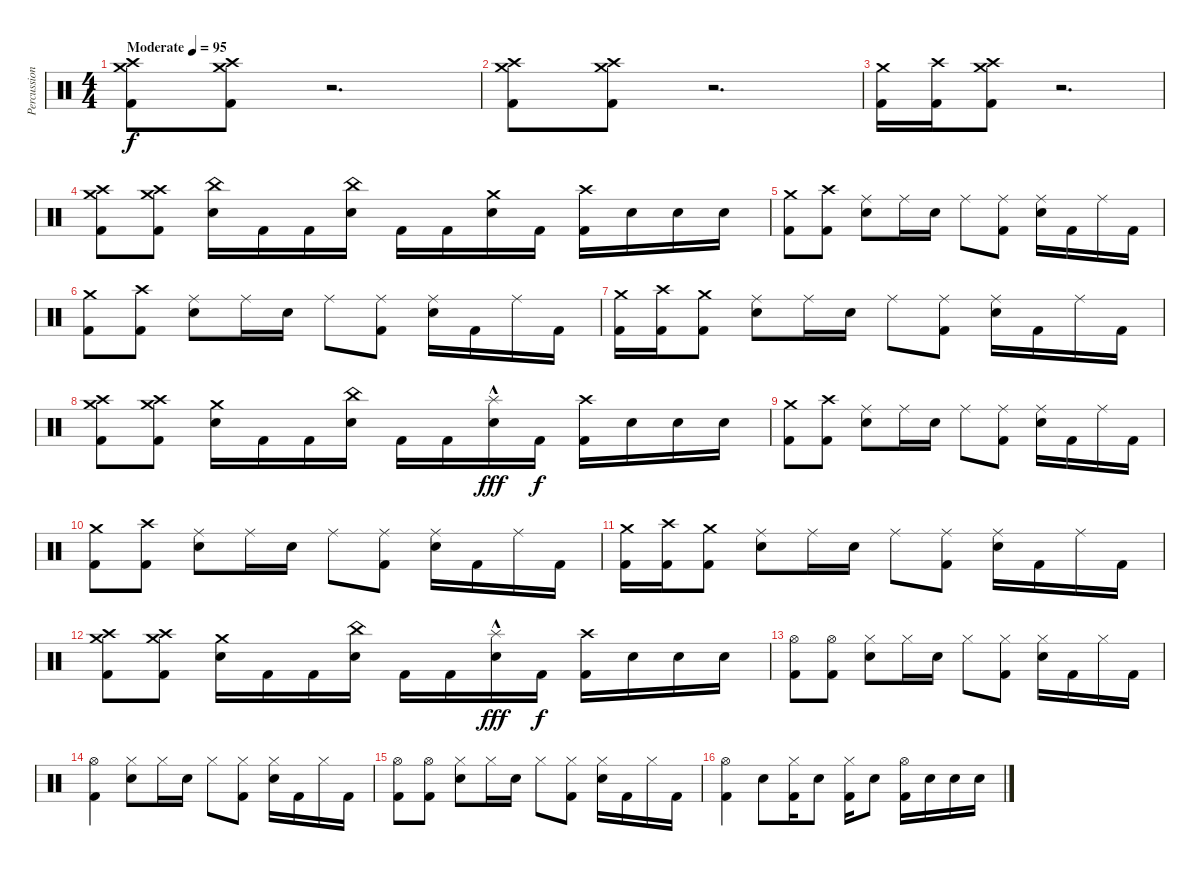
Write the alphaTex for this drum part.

\track ("Percussions" "Percussion") {instrument percussion}
\staff {score}
\articulation defaults
\ts (4 4)
\tempo (95 "Moderate")
\clef neutral
\ks c
("Crash medium (hit)" "Crash high (hit)" "Kick (hit) 2").8{dy f} ("Crash high (hit)" "Crash medium (hit)" "Kick (hit) 2").8 r.2{d} |
("Crash medium (hit)" "Crash high (hit)" "Kick (hit) 2").8 ("Crash high (hit)" "Crash medium (hit)" "Kick (hit) 2").8 r.2{d} |
("Crash medium (hit)" "Kick (hit) 2").16 ("Crash high (hit)" "Kick (hit) 2").16 ("Crash medium (hit)" "Crash high (hit)" "Kick (hit) 2").8 r.2{d} |
("Crash medium (hit)" "Crash high (hit)" "Kick (hit) 2").8 ("Crash high (hit)" "Crash medium (hit)" "Kick (hit) 2").8 ("China (hit)" "Electric Snare (hit)").16 "Kick (hit) 2".16 "Kick (hit) 2".16 ("China (hit)" "Electric Snare (hit)").16 "Kick (hit) 2".16 "Kick (hit) 2".16 ("Crash medium (hit)" "Electric Snare (hit)").16 "Kick (hit) 2".16 ("Crash high (hit)" "Kick (hit) 2").16 "Electric Snare (hit)".16 "Electric Snare (hit)".16 "Electric Snare (hit)".16 |
("Crash medium (hit)" "Kick (hit) 2").8 ("Crash high (hit)" "Kick (hit) 2").8 ("Ride (middle)" "Electric Snare (hit)").8 "Ride (middle)".16 "Electric Snare (hit)".16 "Ride (middle)".8 ("Ride (middle)" "Kick (hit) 2").8 ("Ride (middle)" "Electric Snare (hit)").16 "Kick (hit) 2".16 "Ride (middle)".16 "Kick (hit) 2".16 |
("Crash medium (hit)" "Kick (hit) 2").8 ("Crash high (hit)" "Kick (hit) 2").8 ("Ride (middle)" "Electric Snare (hit)").8 "Ride (middle)".16 "Electric Snare (hit)".16 "Ride (middle)".8 ("Ride (middle)" "Kick (hit) 2").8 ("Ride (middle)" "Electric Snare (hit)").16 "Kick (hit) 2".16 "Ride (middle)".16 "Kick (hit) 2".16 |
("Crash medium (hit)" "Kick (hit) 2").16 ("Crash high (hit)" "Kick (hit) 2").16 ("Crash medium (hit)" "Kick (hit) 2").8 ("Ride (middle)" "Electric Snare (hit)").8 "Ride (middle)".16 "Electric Snare (hit)".16 "Ride (middle)".8 ("Ride (middle)" "Kick (hit) 2").8 ("Ride (middle)" "Electric Snare (hit)").16 "Kick (hit) 2".16 "Ride (middle)".16 "Kick (hit) 2".16 |
("Crash medium (hit)" "Crash high (hit)" "Kick (hit) 2").8 ("Crash high (hit)" "Crash medium (hit)" "Kick (hit) 2").8 ("Crash medium (hit)" "Electric Snare (hit)").16 "Kick (hit) 2".16 "Kick (hit) 2".16 ("China (hit)" "Electric Snare (hit)").16 "Kick (hit) 2".16 "Kick (hit) 2".16 ("Splash (hit)"{hac} "Electric Snare (hit)").16{dy fff} "Kick (hit) 2".16{dy f} ("Crash high (hit)" "Kick (hit) 2").16 "Electric Snare (hit)".16 "Electric Snare (hit)".16 "Electric Snare (hit)".16 |
("Crash medium (hit)" "Kick (hit) 2").8 ("Crash high (hit)" "Kick (hit) 2").8 ("Ride (middle)" "Electric Snare (hit)").8 "Ride (middle)".16 "Electric Snare (hit)".16 "Ride (middle)".8 ("Ride (middle)" "Kick (hit) 2").8 ("Ride (middle)" "Electric Snare (hit)").16 "Kick (hit) 2".16 "Ride (middle)".16 "Kick (hit) 2".16 |
("Crash medium (hit)" "Kick (hit) 2").8 ("Crash high (hit)" "Kick (hit) 2").8 ("Ride (middle)" "Electric Snare (hit)").8 "Ride (middle)".16 "Electric Snare (hit)".16 "Ride (middle)".8 ("Ride (middle)" "Kick (hit) 2").8 ("Ride (middle)" "Electric Snare (hit)").16 "Kick (hit) 2".16 "Ride (middle)".16 "Kick (hit) 2".16 |
("Crash medium (hit)" "Kick (hit) 2").16 ("Crash high (hit)" "Kick (hit) 2").16 ("Crash medium (hit)" "Kick (hit) 2").8 ("Ride (middle)" "Electric Snare (hit)").8 "Ride (middle)".16 "Electric Snare (hit)".16 "Ride (middle)".8 ("Ride (middle)" "Kick (hit) 2").8 ("Ride (middle)" "Electric Snare (hit)").16 "Kick (hit) 2".16 "Ride (middle)".16 "Kick (hit) 2".16 |
("Crash medium (hit)" "Crash high (hit)" "Kick (hit) 2").8 ("Crash high (hit)" "Crash medium (hit)" "Kick (hit) 2").8 ("Crash medium (hit)" "Electric Snare (hit)").16 "Kick (hit) 2".16 "Kick (hit) 2".16 ("China (hit)" "Electric Snare (hit)").16 "Kick (hit) 2".16 "Kick (hit) 2".16 ("Splash (hit)"{hac} "Electric Snare (hit)").16{dy fff} "Kick (hit) 2".16{dy f} ("Crash high (hit)" "Kick (hit) 2").16 "Electric Snare (hit)".16 "Electric Snare (hit)".16 "Electric Snare (hit)".16 |
("Hi-Hat (open)" "Kick (hit) 2").8 ("Hi-Hat (open)" "Kick (hit) 2").8 ("Hi-Hat (closed)" "Electric Snare (hit)").8 "Hi-Hat (closed)".16 "Electric Snare (hit)".16 "Hi-Hat (closed)".8 ("Hi-Hat (closed)" "Kick (hit) 2").8 ("Hi-Hat (closed)" "Electric Snare (hit)").16 "Kick (hit) 2".16 "Hi-Hat (closed)".16 "Kick (hit) 2".16 |
("Hi-Hat (open)" "Kick (hit) 2").4 ("Hi-Hat (closed)" "Electric Snare (hit)").8 "Hi-Hat (closed)".16 "Electric Snare (hit)".16 "Hi-Hat (closed)".8 ("Hi-Hat (closed)" "Kick (hit) 2").8 ("Hi-Hat (closed)" "Electric Snare (hit)").16 "Kick (hit) 2".16 "Hi-Hat (closed)".16 "Kick (hit) 2".16 |
("Hi-Hat (open)" "Kick (hit) 2").8 ("Hi-Hat (open)" "Kick (hit) 2").8 ("Hi-Hat (closed)" "Electric Snare (hit)").8 "Hi-Hat (closed)".16 "Electric Snare (hit)".16 "Hi-Hat (closed)".8 ("Hi-Hat (closed)" "Kick (hit) 2").8 ("Hi-Hat (closed)" "Electric Snare (hit)").16 "Kick (hit) 2".16 "Hi-Hat (closed)".16 "Kick (hit) 2".16 |
("Hi-Hat (open)" "Kick (hit) 2").4 "Electric Snare (hit)".8 ("Hi-Hat (closed)" "Kick (hit) 2").16 "Electric Snare (hit)".8 ("Hi-Hat (closed)" "Kick (hit) 2").16 "Electric Snare (hit)".8 ("Hi-Hat (open)" "Kick (hit) 2").16 "Electric Snare (hit)".16 "Electric Snare (hit)".16 "Electric Snare (hit)".16
